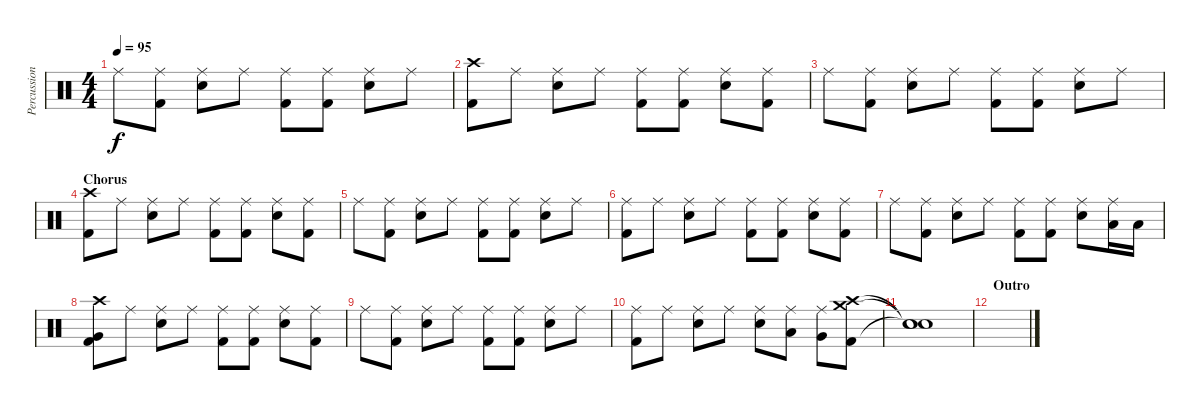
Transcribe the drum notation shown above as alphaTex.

\track ("Percussion" "Percussion") {instrument percussion}
\staff {score}
\articulation defaults
\ts (4 4)
\tempo 95
\clef neutral
\ks c "Ride (middle)".8{dy f}
("Ride (middle)" "Kick (hit) 2").8 ("Ride (middle)" "Electric Snare (hit)").8 "Ride (middle)".8 ("Ride (middle)" "Kick (hit) 2").8 ("Ride (middle)" "Kick (hit) 2").8 ("Ride (middle)" "Electric Snare (hit)").8 "Ride (middle)".8 |
("Crash high (hit)" "Kick (hit) 2").8{volume 13} "Ride (middle)".8 ("Ride (middle)" "Electric Snare (hit)").8 "Ride (middle)".8 ("Ride (middle)" "Kick (hit) 2").8 ("Ride (middle)" "Kick (hit) 2").8 ("Ride (middle)" "Electric Snare (hit)").8 ("Ride (middle)" "Kick (hit) 2").8 |
"Ride (middle)".8 ("Ride (middle)" "Kick (hit) 2").8 ("Ride (middle)" "Electric Snare (hit)").8 "Ride (middle)".8 ("Ride (middle)" "Kick (hit) 2").8 ("Ride (middle)" "Kick (hit) 2").8 ("Ride (middle)" "Electric Snare (hit)").8 "Ride (middle)".8 |
\section ("" "Chorus")
("Crash high (hit)" "Kick (hit) 2").8{volume 13} "Ride (middle)".8 ("Ride (middle)" "Electric Snare (hit)").8 "Ride (middle)".8 ("Ride (middle)" "Kick (hit) 2").8 ("Ride (middle)" "Kick (hit) 2").8 ("Ride (middle)" "Electric Snare (hit)").8 ("Ride (middle)" "Kick (hit) 2").8 |
"Ride (middle)".8 ("Ride (middle)" "Kick (hit) 2").8 ("Ride (middle)" "Electric Snare (hit)").8 "Ride (middle)".8 ("Ride (middle)" "Kick (hit) 2").8 ("Ride (middle)" "Kick (hit) 2").8 ("Ride (middle)" "Electric Snare (hit)").8 "Ride (middle)".8 |
("Ride (middle)" "Kick (hit) 2").8{volume 13} "Ride (middle)".8 ("Ride (middle)" "Electric Snare (hit)").8 "Ride (middle)".8 ("Ride (middle)" "Kick (hit) 2").8 ("Ride (middle)" "Kick (hit) 2").8 ("Ride (middle)" "Electric Snare (hit)").8 ("Ride (middle)" "Kick (hit) 2").8 |
"Ride (middle)".8 ("Ride (middle)" "Kick (hit) 2").8 ("Ride (middle)" "Electric Snare (hit)").8 "Ride (middle)".8 ("Ride (middle)" "Kick (hit) 2").8 ("Ride (middle)" "Kick (hit) 2").8 ("Ride (middle)" "Electric Snare (hit)").8 ("Ride (middle)" "Low Tom (hit)").16 "Low Tom (hit)".16 |
("Crash high (hit)" "Very Low Tom (hit)" "Kick (hit) 2").8{volume 13} "Ride (middle)".8 ("Ride (middle)" "Electric Snare (hit)").8 "Ride (middle)".8 ("Ride (middle)" "Kick (hit) 2").8 ("Ride (middle)" "Kick (hit) 2").8 ("Ride (middle)" "Electric Snare (hit)").8 ("Ride (middle)" "Kick (hit) 2").8 |
"Ride (middle)".8 ("Ride (middle)" "Kick (hit) 2").8 ("Ride (middle)" "Electric Snare (hit)").8 "Ride (middle)".8 ("Ride (middle)" "Kick (hit) 2").8 ("Ride (middle)" "Kick (hit) 2").8 ("Ride (middle)" "Electric Snare (hit)").8 "Ride (middle)".8 |
("Ride (middle)" "Kick (hit) 2").8{volume 13} "Ride (middle)".8 ("Ride (middle)" "Electric Snare (hit)").8 "Ride (middle)".8 ("Ride (middle)" "Electric Snare (hit)").8 ("Ride (middle)" "Low Tom (hit)").8 ("Ride (middle)" "Very Low Tom (hit)").8 ("Crash medium (hit)" "Crash high (hit)" "Kick (hit) 2").8 |
("Snare (hit)"{t} "Snare (hit)"{t} "Snare (hit)"{t}).1 |
\section ("" "Outro")
